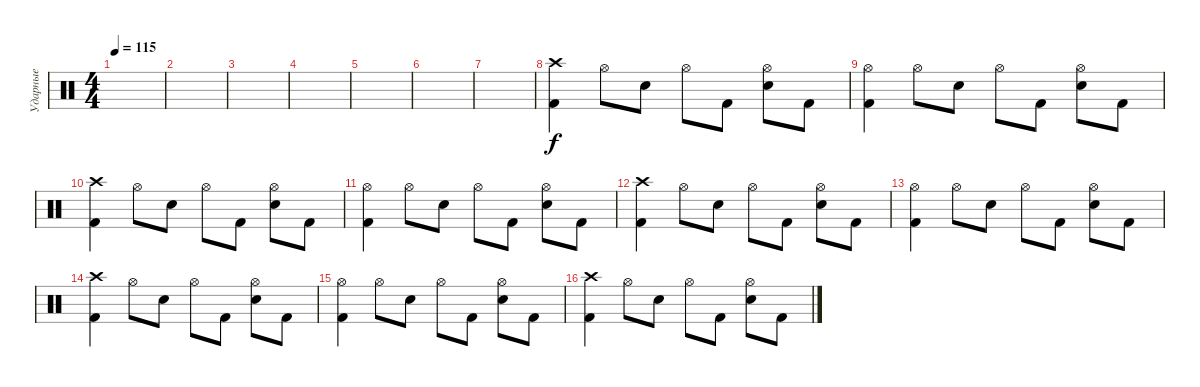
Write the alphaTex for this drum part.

\track ("Ударные" "Ударные") {instrument percussion}
\staff {score}
\articulation defaults
\ts (4 4)
\tempo 115
\clef neutral
\ks c
|
|
|
|
|
|
|
("Crash high (hit)" "Kick (hit) 2").4 "Hi-Hat (open)".8 "Snare (hit) 2".8 "Hi-Hat (open)".8 "Kick (hit) 2".8 ("Hi-Hat (open)" "Snare (hit) 2").8 "Kick (hit) 2".8 |
("Hi-Hat (open)" "Kick (hit) 2").4 "Hi-Hat (open)".8 "Snare (hit) 2".8 "Hi-Hat (open)".8 "Kick (hit) 2".8 ("Hi-Hat (open)" "Snare (hit) 2").8 "Kick (hit) 2".8 |
("Crash high (hit)" "Kick (hit) 2").4 "Hi-Hat (open)".8 "Snare (hit) 2".8 "Hi-Hat (open)".8 "Kick (hit) 2".8 ("Hi-Hat (open)" "Snare (hit) 2").8 "Kick (hit) 2".8 |
("Hi-Hat (open)" "Kick (hit) 2").4 "Hi-Hat (open)".8 "Snare (hit) 2".8 "Hi-Hat (open)".8 "Kick (hit) 2".8 ("Hi-Hat (open)" "Snare (hit) 2").8 "Kick (hit) 2".8 |
("Crash high (hit)" "Kick (hit) 2").4 "Hi-Hat (open)".8 "Snare (hit) 2".8 "Hi-Hat (open)".8 "Kick (hit) 2".8 ("Hi-Hat (open)" "Snare (hit) 2").8 "Kick (hit) 2".8 |
("Hi-Hat (open)" "Kick (hit) 2").4 "Hi-Hat (open)".8 "Snare (hit) 2".8 "Hi-Hat (open)".8 "Kick (hit) 2".8 ("Hi-Hat (open)" "Snare (hit) 2").8 "Kick (hit) 2".8 |
("Crash high (hit)" "Kick (hit) 2").4 "Hi-Hat (open)".8 "Snare (hit) 2".8 "Hi-Hat (open)".8 "Kick (hit) 2".8 ("Hi-Hat (open)" "Snare (hit) 2").8 "Kick (hit) 2".8 |
("Hi-Hat (open)" "Kick (hit) 2").4 "Hi-Hat (open)".8 "Snare (hit) 2".8 "Hi-Hat (open)".8 "Kick (hit) 2".8 ("Hi-Hat (open)" "Snare (hit) 2").8 "Kick (hit) 2".8 |
("Crash high (hit)" "Kick (hit) 2").4 "Hi-Hat (open)".8 "Snare (hit) 2".8 "Hi-Hat (open)".8 "Kick (hit) 2".8 ("Hi-Hat (open)" "Snare (hit) 2").8 "Kick (hit) 2".8
